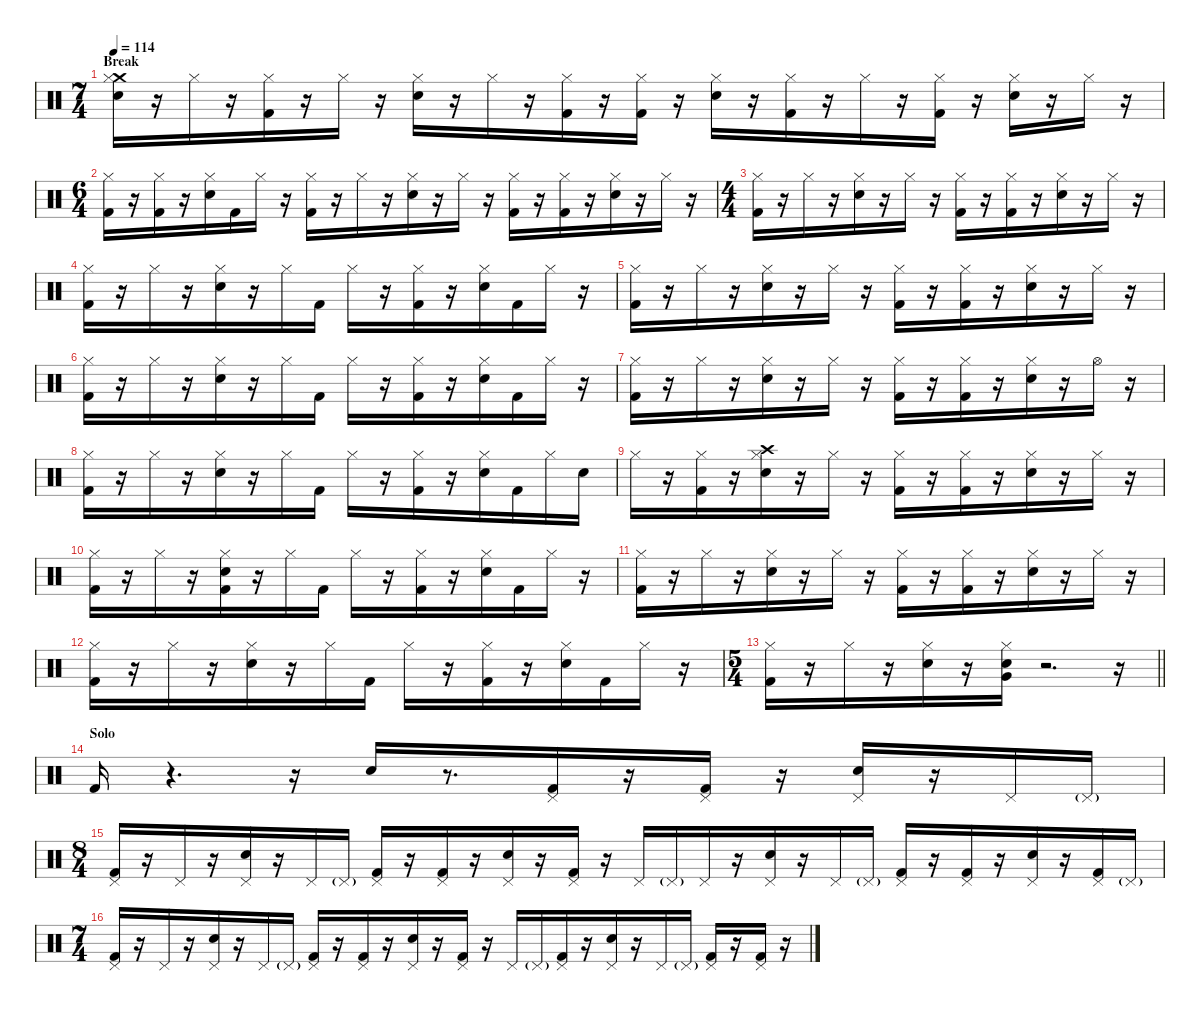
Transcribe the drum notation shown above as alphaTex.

\defaultSystemsLayout 4
\hideDynamics
\bracketExtendMode nobrackets
\singleTrackTrackNamePolicy hidden
\multiTrackTrackNamePolicy hidden
\firstSystemTrackNameMode fullname
\firstSystemTrackNameOrientation horizontal
\otherSystemsTrackNameOrientation horizontal
\track ("Drums" "drm.") {instrument percussion}
\staff {score}
\articulation defaults
\ts (7 4)
\beaming (8 4 4 4 4)
\section ("" "Break")
\tempo 114
\clef neutral
\ks c
("Crash medium (hit)" "Hi-Hat (closed)" "Snare (hit) 2").16{dy f beam Down} r.16{beam Down} "Hi-Hat (closed)".16{beam Down} r.16{beam Down} ("Hi-Hat (closed)" "Kick (hit) 2").16{beam Down} r.16{beam Down} "Hi-Hat (closed)".16{beam Down} r.16{beam Down} ("Hi-Hat (closed)" "Snare (hit) 2").16{beam Down} r.16{beam Down} "Hi-Hat (closed)".16{beam Down} r.16{beam Down} ("Hi-Hat (closed)" "Kick (hit) 2").16{beam Down} r.16{beam Down} ("Hi-Hat (closed)" "Kick (hit) 2").16{beam Down} r.16{beam Down} ("Hi-Hat (closed)" "Snare (hit) 2").16{beam Down} r.16{beam Down} ("Hi-Hat (closed)" "Kick (hit) 2").16{beam Down} r.16{beam Down} "Hi-Hat (closed)".16{beam Down} r.16{beam Down} ("Hi-Hat (closed)" "Kick (hit) 2").16{beam Down} r.16{beam Down} ("Hi-Hat (closed)" "Snare (hit) 2").16{beam Down} r.16{beam Down} "Hi-Hat (closed)".16{beam Down} r.16{beam Down} |
\ts (6 4)
\beaming (8 4 4 4 4)
("Hi-Hat (closed)" "Kick (hit) 2").16{beam Down} r.16{beam Down} ("Hi-Hat (closed)" "Kick (hit) 2").16{beam Down} r.16{beam Down} ("Hi-Hat (closed)" "Snare (hit) 2").16{beam Down} "Kick (hit) 2".16{beam Down} "Hi-Hat (closed)".16{beam Down} r.16{beam Down} ("Hi-Hat (closed)" "Kick (hit) 2").16{beam Down} r.16{beam Down} "Hi-Hat (closed)".16{beam Down} r.16{beam Down} ("Hi-Hat (closed)" "Snare (hit) 2").16{beam Down} r.16{beam Down} "Hi-Hat (closed)".16{beam Down} r.16{beam Down} ("Hi-Hat (closed)" "Kick (hit) 2").16{beam Down} r.16{beam Down} ("Hi-Hat (closed)" "Kick (hit) 2").16{beam Down} r.16{beam Down} ("Hi-Hat (closed)" "Snare (hit) 2").16{beam Down} r.16{beam Down} "Hi-Hat (closed)".16{beam Down} r.16{beam Down} |
\ts (4 4)
\beaming (8 4 4 4 4)
("Hi-Hat (closed)" "Kick (hit) 2").16{beam Down} r.16{beam Down} "Hi-Hat (closed)".16{beam Down} r.16{beam Down} ("Hi-Hat (closed)" "Snare (hit) 2").16{beam Down} r.16{beam Down} "Hi-Hat (closed)".16{beam Down} r.16{beam Down} ("Hi-Hat (closed)" "Kick (hit) 2").16{beam Down} r.16{beam Down} ("Hi-Hat (closed)" "Kick (hit) 2").16{beam Down} r.16{beam Down} ("Hi-Hat (closed)" "Snare (hit) 2").16{beam Down} r.16{beam Down} "Hi-Hat (closed)".16{beam Down} r.16{beam Down} |
("Hi-Hat (closed)" "Kick (hit) 2").16{beam Down} r.16{beam Down} "Hi-Hat (closed)".16{beam Down} r.16{beam Down} ("Hi-Hat (closed)" "Snare (hit) 2").16{beam Down} r.16{beam Down} "Hi-Hat (closed)".16{beam Down} "Kick (hit) 2".16{beam Down} "Hi-Hat (closed)".16{beam Down} r.16{beam Down} ("Hi-Hat (closed)" "Kick (hit) 2").16{beam Down} r.16{beam Down} ("Hi-Hat (closed)" "Snare (hit) 2").16{beam Down} "Kick (hit) 2".16{beam Down} "Hi-Hat (closed)".16{beam Down} r.16{beam Down} |
("Hi-Hat (closed)" "Kick (hit) 2").16{beam Down} r.16{beam Down} "Hi-Hat (closed)".16{beam Down} r.16{beam Down} ("Hi-Hat (closed)" "Snare (hit) 2").16{beam Down} r.16{beam Down} "Hi-Hat (closed)".16{beam Down} r.16{beam Down} ("Hi-Hat (closed)" "Kick (hit) 2").16{beam Down} r.16{beam Down} ("Hi-Hat (closed)" "Kick (hit) 2").16{beam Down} r.16{beam Down} ("Hi-Hat (closed)" "Snare (hit) 2").16{beam Down} r.16{beam Down} "Hi-Hat (closed)".16{beam Down} r.16{beam Down} |
("Hi-Hat (closed)" "Kick (hit) 2").16{beam Down} r.16{beam Down} "Hi-Hat (closed)".16{beam Down} r.16{beam Down} ("Hi-Hat (closed)" "Snare (hit) 2").16{beam Down} r.16{beam Down} "Hi-Hat (closed)".16{beam Down} "Kick (hit) 2".16{beam Down} "Hi-Hat (closed)".16{beam Down} r.16{beam Down} ("Hi-Hat (closed)" "Kick (hit) 2").16{beam Down} r.16{beam Down} ("Hi-Hat (closed)" "Snare (hit) 2").16{beam Down} "Kick (hit) 2".16{beam Down} "Hi-Hat (closed)".16{beam Down} r.16{beam Down} |
("Hi-Hat (closed)" "Kick (hit) 2").16{beam Down} r.16{beam Down} "Hi-Hat (closed)".16{beam Down} r.16{beam Down} ("Hi-Hat (closed)" "Snare (hit) 2").16{beam Down} r.16{beam Down} "Hi-Hat (closed)".16{beam Down} r.16{beam Down} ("Hi-Hat (closed)" "Kick (hit) 2").16{beam Down} r.16{beam Down} ("Hi-Hat (closed)" "Kick (hit) 2").16{beam Down} r.16{beam Down} ("Hi-Hat (closed)" "Snare (hit) 2").16{beam Down} r.16{beam Down} "Hi-Hat (open)".16{beam Down} r.16{beam Down} |
("Hi-Hat (closed)" "Kick (hit) 2").16{beam Down} r.16{beam Down} "Hi-Hat (closed)".16{beam Down} r.16{beam Down} ("Hi-Hat (closed)" "Snare (hit) 2").16{beam Down} r.16{beam Down} "Hi-Hat (closed)".16{beam Down} "Kick (hit) 2".16{beam Down} "Hi-Hat (closed)".16{beam Down} r.16{beam Down} ("Hi-Hat (closed)" "Kick (hit) 2").16{beam Down} r.16{beam Down} ("Hi-Hat (closed)" "Snare (hit) 2").16{beam Down} "Kick (hit) 2".16{beam Down} "Hi-Hat (closed)".16{beam Down} "Snare (hit) 2".16{beam Down} |
"Hi-Hat (closed)".16{beam Down} r.16{beam Down} ("Hi-Hat (closed)" "Kick (hit) 2").16{beam Down} r.16{beam Down} ("Crash high (hit)" "Hi-Hat (closed)" "Snare (hit) 2").16{beam Down} r.16{beam Down} "Hi-Hat (closed)".16{beam Down} r.16{beam Down} ("Hi-Hat (closed)" "Kick (hit) 2").16{beam Down} r.16{beam Down} ("Hi-Hat (closed)" "Kick (hit) 2").16{beam Down} r.16{beam Down} ("Hi-Hat (closed)" "Snare (hit) 2").16{beam Down} r.16{beam Down} "Hi-Hat (closed)".16{beam Down} r.16{beam Down} |
("Hi-Hat (closed)" "Kick (hit) 2").16{beam Down} r.16{beam Down} "Hi-Hat (closed)".16{beam Down} r.16{beam Down} ("Hi-Hat (closed)" "Snare (hit) 2" "Kick (hit) 2").16{beam Down} r.16{beam Down} "Hi-Hat (closed)".16{beam Down} "Kick (hit) 2".16{beam Down} "Hi-Hat (closed)".16{beam Down} r.16{beam Down} ("Hi-Hat (closed)" "Kick (hit) 2").16{beam Down} r.16{beam Down} ("Hi-Hat (closed)" "Snare (hit) 2").16{beam Down} "Kick (hit) 2".16{beam Down} "Hi-Hat (closed)".16{beam Down} r.16{beam Down} |
("Hi-Hat (closed)" "Kick (hit) 2").16{beam Down} r.16{beam Down} "Hi-Hat (closed)".16{beam Down} r.16{beam Down} ("Hi-Hat (closed)" "Snare (hit) 2").16{beam Down} r.16{beam Down} "Hi-Hat (closed)".16{beam Down} r.16{beam Down} ("Hi-Hat (closed)" "Kick (hit) 2").16{beam Down} r.16{beam Down} ("Hi-Hat (closed)" "Kick (hit) 2").16{beam Down} r.16{beam Down} ("Hi-Hat (closed)" "Snare (hit) 2").16{beam Down} r.16{beam Down} "Hi-Hat (closed)".16{beam Down} r.16{beam Down} |
("Hi-Hat (closed)" "Kick (hit) 2").16{beam Down} r.16{beam Down} "Hi-Hat (closed)".16{beam Down} r.16{beam Down} ("Hi-Hat (closed)" "Snare (hit) 2").16{beam Down} r.16{beam Down} "Hi-Hat (closed)".16{beam Down} "Kick (hit) 2".16{beam Down} "Hi-Hat (closed)".16{beam Down} r.16{beam Down} ("Hi-Hat (closed)" "Kick (hit) 2").16{beam Down} r.16{beam Down} ("Hi-Hat (closed)" "Snare (hit) 2").16{beam Down} "Kick (hit) 2".16{beam Down} "Hi-Hat (closed)".16{beam Down} r.16{beam Down} |
\ts (5 4)
\beaming (8 4 4 4 4)
\barLineRight lightlight
("Hi-Hat (closed)" "Kick (hit) 2").16{beam Down} r.16{beam Down} "Hi-Hat (closed)".16{beam Down} r.16{beam Down} ("Hi-Hat (closed)" "Snare (hit) 2").16{beam Down} r.16{beam Down} ("Hi-Hat (closed)" "Very Low Tom (hit)" "Snare (hit) 2").16{beam Down} r.2{d beam Down} r.16{beam Down} |
\section ("" "Solo")
"Kick (hit) 2".16{beam Up} r.4{d beam Up} r.16{beam Up} "Snare (hit) 2".16{beam Up} r.8{d beam Up} ("Pedal Hi-Hat (hit)" "Kick (hit) 2").16{beam Up} r.16{beam Up} ("Pedal Hi-Hat (hit)" "Kick (hit) 2").16{beam Up} r.16{beam Up} ("Pedal Hi-Hat (hit)" "Snare (hit) 2").16{beam Up} r.16{beam Up} "Pedal Hi-Hat (hit)".16{beam Up} "Pedal Hi-Hat (hit)"{g}.16{dy mf beam Up} |
\ts (8 4)
\beaming (8 4 4 4 4)
("Pedal Hi-Hat (hit)" "Kick (hit) 2").16{dy f beam Up} r.16{beam Up} "Pedal Hi-Hat (hit)".16{beam Up} r.16{beam Up} ("Pedal Hi-Hat (hit)" "Snare (hit) 2").16{beam Up} r.16{beam Up} "Pedal Hi-Hat (hit)".16{beam Up} "Pedal Hi-Hat (hit)"{g}.16{dy mf beam Up} ("Pedal Hi-Hat (hit)" "Kick (hit) 2").16{dy f beam Up} r.16{beam Up} ("Pedal Hi-Hat (hit)" "Kick (hit) 2").16{beam Up} r.16{beam Up} ("Pedal Hi-Hat (hit)" "Snare (hit) 2").16{beam Up} r.16{beam Up} ("Pedal Hi-Hat (hit)" "Kick (hit) 2").16{beam Up} r.16{beam Up} "Pedal Hi-Hat (hit)".16{beam Up} "Pedal Hi-Hat (hit)"{g}.16{dy mf beam Up} "Pedal Hi-Hat (hit)".16{dy f beam Up} r.16{beam Up} ("Pedal Hi-Hat (hit)" "Snare (hit) 2").16{beam Up} r.16{beam Up} "Pedal Hi-Hat (hit)".16{beam Up} "Pedal Hi-Hat (hit)"{g}.16{dy mf beam Up} ("Pedal Hi-Hat (hit)" "Kick (hit) 2").16{dy f beam Up} r.16{beam Up} ("Pedal Hi-Hat (hit)" "Kick (hit) 2").16{beam Up} r.16{beam Up} ("Pedal Hi-Hat (hit)" "Snare (hit) 2").16{beam Up} r.16{beam Up} ("Pedal Hi-Hat (hit)" "Kick (hit) 2").16{beam Up} "Pedal Hi-Hat (hit)"{g}.16{dy mf beam Up} |
\ts (7 4)
\beaming (8 4 4 4 4)
("Pedal Hi-Hat (hit)" "Kick (hit) 2").16{dy f beam Up} r.16{beam Up} "Pedal Hi-Hat (hit)".16{beam Up} r.16{beam Up} ("Pedal Hi-Hat (hit)" "Snare (hit) 2").16{beam Up} r.16{beam Up} "Pedal Hi-Hat (hit)".16{beam Up} "Pedal Hi-Hat (hit)"{g}.16{dy mf beam Up} ("Pedal Hi-Hat (hit)" "Kick (hit) 2").16{dy f beam Up} r.16{beam Up} ("Pedal Hi-Hat (hit)" "Kick (hit) 2").16{beam Up} r.16{beam Up} ("Pedal Hi-Hat (hit)" "Snare (hit) 2").16{beam Up} r.16{beam Up} ("Pedal Hi-Hat (hit)" "Kick (hit) 2").16{beam Up} r.16{beam Up} "Pedal Hi-Hat (hit)".16{beam Up} "Pedal Hi-Hat (hit)"{g}.16{dy mf beam Up} ("Pedal Hi-Hat (hit)" "Kick (hit) 2").16{dy f beam Up} r.16{beam Up} ("Pedal Hi-Hat (hit)" "Snare (hit) 2").16{beam Up} r.16{beam Up} "Pedal Hi-Hat (hit)".16{beam Up} "Pedal Hi-Hat (hit)"{g}.16{dy mf beam Up} ("Pedal Hi-Hat (hit)" "Kick (hit) 2").16{dy f beam Up} r.16{beam Up} ("Pedal Hi-Hat (hit)" "Kick (hit) 2").16{beam Up} r.16{beam Up}
